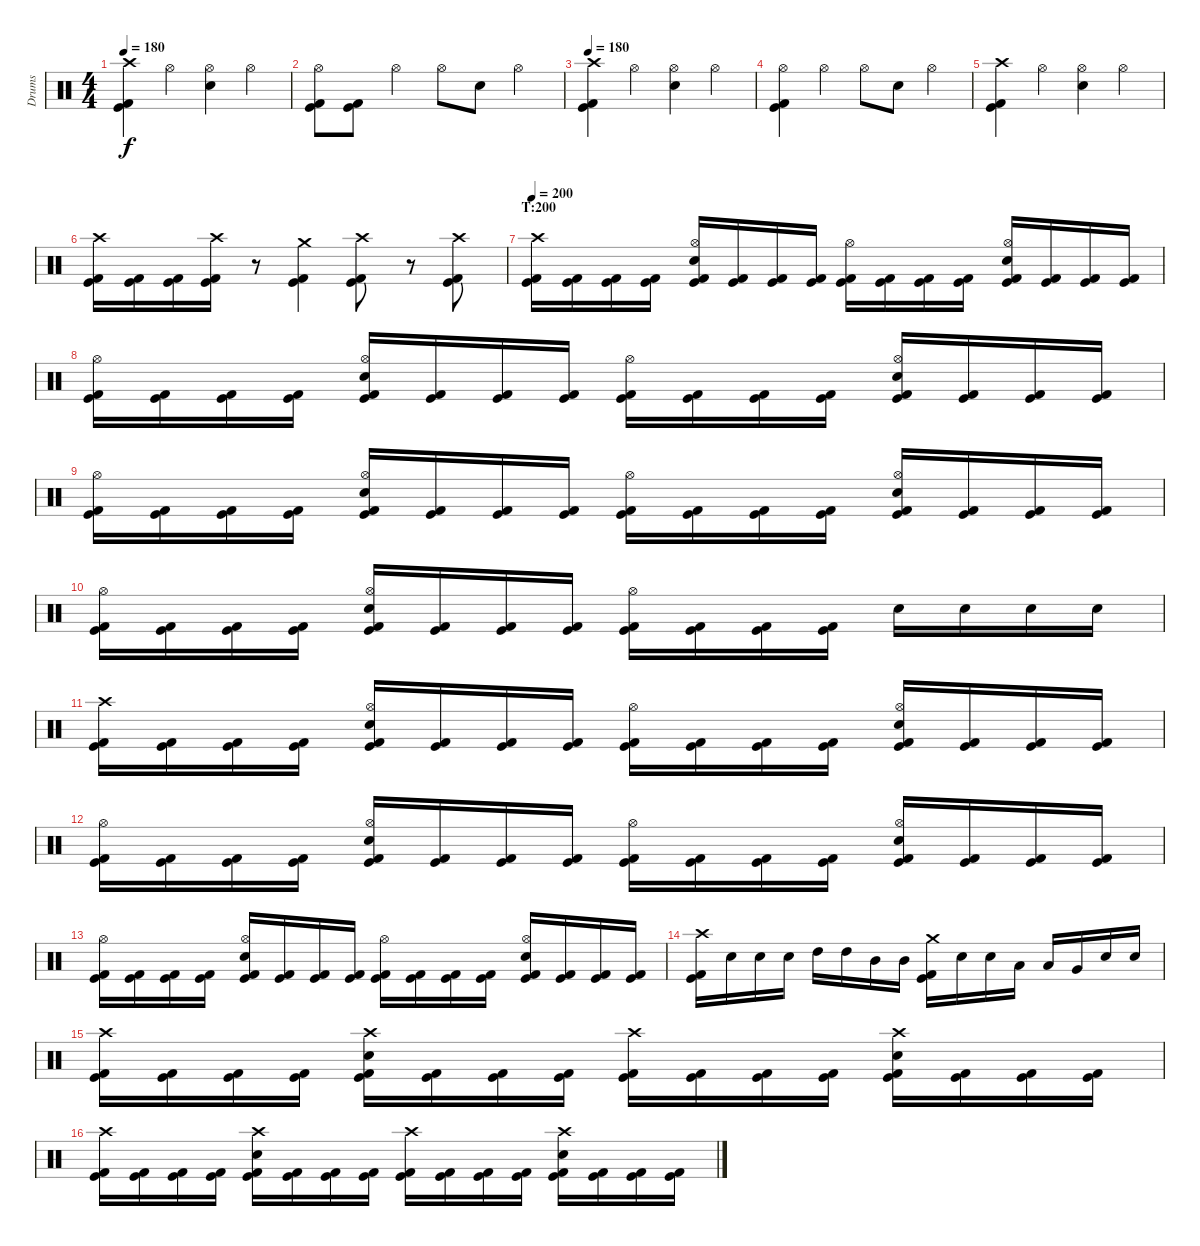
\track ("Drums" "Drums") {instrument percussion}
\staff {score}
\articulation defaults
\ts (4 4)
\tempo 180
\clef neutral
\ks c
("Crash high (hit)" "Kick (hit)" "Kick (hit) 2").4{dy f} "Hi-Hat (open)".4 ("Hi-Hat (open)" "Electric Snare (hit)").4 "Hi-Hat (open)".4 |
("Hi-Hat (open)" "Kick (hit)" "Kick (hit) 2").8 ("Kick (hit)" "Kick (hit) 2").8 "Hi-Hat (open)".4 "Hi-Hat (open)".8 "Electric Snare (hit)".8 "Hi-Hat (open)".4 |
\tempo 170
\tempo 180
("Crash high (hit)" "Kick (hit)" "Kick (hit) 2").4 "Hi-Hat (open)".4 ("Hi-Hat (open)" "Electric Snare (hit)").4 "Hi-Hat (open)".4 |
("Hi-Hat (open)" "Kick (hit)" "Kick (hit) 2").4 "Hi-Hat (open)".4 "Hi-Hat (open)".8 "Electric Snare (hit)".8 "Hi-Hat (open)".4 |
("Crash high (hit)" "Kick (hit)" "Kick (hit) 2").4 "Hi-Hat (open)".4 ("Hi-Hat (open)" "Electric Snare (hit)").4 "Hi-Hat (open)".4 |
("Crash high (hit)" "Kick (hit)" "Kick (hit) 2").16 ("Kick (hit)" "Kick (hit) 2").16 ("Kick (hit)" "Kick (hit) 2").16 ("Crash high (hit)" "Kick (hit)" "Kick (hit) 2").16 r.8 ("Crash medium (hit)" "Kick (hit)" "Kick (hit) 2").4 ("Crash high (hit)" "Kick (hit)" "Kick (hit) 2").8 r.8 ("Crash high (hit)" "Kick (hit)" "Kick (hit) 2").8 |
\section ("" "T:200")
\tempo 200
("Crash high (hit)" "Kick (hit)" "Kick (hit) 2").16 ("Kick (hit)" "Kick (hit) 2").16 ("Kick (hit)" "Kick (hit) 2").16 ("Kick (hit)" "Kick (hit) 2").16 ("Hi-Hat (open)" "Electric Snare (hit)" "Kick (hit)" "Kick (hit) 2").16 ("Kick (hit)" "Kick (hit) 2").16 ("Kick (hit)" "Kick (hit) 2").16 ("Kick (hit)" "Kick (hit) 2").16 ("Hi-Hat (open)" "Kick (hit)" "Kick (hit) 2").16 ("Kick (hit)" "Kick (hit) 2").16 ("Kick (hit)" "Kick (hit) 2").16 ("Kick (hit)" "Kick (hit) 2").16 ("Hi-Hat (open)" "Electric Snare (hit)" "Kick (hit)" "Kick (hit) 2").16 ("Kick (hit)" "Kick (hit) 2").16 ("Kick (hit)" "Kick (hit) 2").16 ("Kick (hit)" "Kick (hit) 2").16 |
("Hi-Hat (open)" "Kick (hit)" "Kick (hit) 2").16 ("Kick (hit)" "Kick (hit) 2").16 ("Kick (hit)" "Kick (hit) 2").16 ("Kick (hit)" "Kick (hit) 2").16 ("Hi-Hat (open)" "Electric Snare (hit)" "Kick (hit)" "Kick (hit) 2").16 ("Kick (hit)" "Kick (hit) 2").16 ("Kick (hit)" "Kick (hit) 2").16 ("Kick (hit)" "Kick (hit) 2").16 ("Hi-Hat (open)" "Kick (hit)" "Kick (hit) 2").16 ("Kick (hit)" "Kick (hit) 2").16 ("Kick (hit)" "Kick (hit) 2").16 ("Kick (hit)" "Kick (hit) 2").16 ("Hi-Hat (open)" "Electric Snare (hit)" "Kick (hit)" "Kick (hit) 2").16 ("Kick (hit)" "Kick (hit) 2").16 ("Kick (hit)" "Kick (hit) 2").16 ("Kick (hit)" "Kick (hit) 2").16 |
("Hi-Hat (open)" "Kick (hit)" "Kick (hit) 2").16 ("Kick (hit)" "Kick (hit) 2").16 ("Kick (hit)" "Kick (hit) 2").16 ("Kick (hit)" "Kick (hit) 2").16 ("Hi-Hat (open)" "Electric Snare (hit)" "Kick (hit)" "Kick (hit) 2").16 ("Kick (hit)" "Kick (hit) 2").16 ("Kick (hit)" "Kick (hit) 2").16 ("Kick (hit)" "Kick (hit) 2").16 ("Hi-Hat (open)" "Kick (hit)" "Kick (hit) 2").16 ("Kick (hit)" "Kick (hit) 2").16 ("Kick (hit)" "Kick (hit) 2").16 ("Kick (hit)" "Kick (hit) 2").16 ("Hi-Hat (open)" "Electric Snare (hit)" "Kick (hit)" "Kick (hit) 2").16 ("Kick (hit)" "Kick (hit) 2").16 ("Kick (hit)" "Kick (hit) 2").16 ("Kick (hit)" "Kick (hit) 2").16 |
("Hi-Hat (open)" "Kick (hit)" "Kick (hit) 2").16 ("Kick (hit)" "Kick (hit) 2").16 ("Kick (hit)" "Kick (hit) 2").16 ("Kick (hit)" "Kick (hit) 2").16 ("Hi-Hat (open)" "Electric Snare (hit)" "Kick (hit)" "Kick (hit) 2").16 ("Kick (hit)" "Kick (hit) 2").16 ("Kick (hit)" "Kick (hit) 2").16 ("Kick (hit)" "Kick (hit) 2").16 ("Hi-Hat (open)" "Kick (hit)" "Kick (hit) 2").16 ("Kick (hit)" "Kick (hit) 2").16 ("Kick (hit)" "Kick (hit) 2").16 ("Kick (hit)" "Kick (hit) 2").16 "Electric Snare (hit)".16 "Electric Snare (hit)".16 "Electric Snare (hit)".16 "Electric Snare (hit)".16 |
("Crash high (hit)" "Kick (hit)" "Kick (hit) 2").16 ("Kick (hit)" "Kick (hit) 2").16 ("Kick (hit)" "Kick (hit) 2").16 ("Kick (hit)" "Kick (hit) 2").16 ("Hi-Hat (open)" "Electric Snare (hit)" "Kick (hit)" "Kick (hit) 2").16 ("Kick (hit)" "Kick (hit) 2").16 ("Kick (hit)" "Kick (hit) 2").16 ("Kick (hit)" "Kick (hit) 2").16 ("Hi-Hat (open)" "Kick (hit)" "Kick (hit) 2").16 ("Kick (hit)" "Kick (hit) 2").16 ("Kick (hit)" "Kick (hit) 2").16 ("Kick (hit)" "Kick (hit) 2").16 ("Hi-Hat (open)" "Electric Snare (hit)" "Kick (hit)" "Kick (hit) 2").16 ("Kick (hit)" "Kick (hit) 2").16 ("Kick (hit)" "Kick (hit) 2").16 ("Kick (hit)" "Kick (hit) 2").16 |
("Hi-Hat (open)" "Kick (hit)" "Kick (hit) 2").16 ("Kick (hit)" "Kick (hit) 2").16 ("Kick (hit)" "Kick (hit) 2").16 ("Kick (hit)" "Kick (hit) 2").16 ("Hi-Hat (open)" "Electric Snare (hit)" "Kick (hit)" "Kick (hit) 2").16 ("Kick (hit)" "Kick (hit) 2").16 ("Kick (hit)" "Kick (hit) 2").16 ("Kick (hit)" "Kick (hit) 2").16 ("Hi-Hat (open)" "Kick (hit)" "Kick (hit) 2").16 ("Kick (hit)" "Kick (hit) 2").16 ("Kick (hit)" "Kick (hit) 2").16 ("Kick (hit)" "Kick (hit) 2").16 ("Hi-Hat (open)" "Electric Snare (hit)" "Kick (hit)" "Kick (hit) 2").16 ("Kick (hit)" "Kick (hit) 2").16 ("Kick (hit)" "Kick (hit) 2").16 ("Kick (hit)" "Kick (hit) 2").16 |
("Hi-Hat (open)" "Kick (hit)" "Kick (hit) 2").16 ("Kick (hit)" "Kick (hit) 2").16 ("Kick (hit)" "Kick (hit) 2").16 ("Kick (hit)" "Kick (hit) 2").16 ("Hi-Hat (open)" "Electric Snare (hit)" "Kick (hit)" "Kick (hit) 2").16 ("Kick (hit)" "Kick (hit) 2").16 ("Kick (hit)" "Kick (hit) 2").16 ("Kick (hit)" "Kick (hit) 2").16 ("Hi-Hat (open)" "Kick (hit)" "Kick (hit) 2").16 ("Kick (hit)" "Kick (hit) 2").16 ("Kick (hit)" "Kick (hit) 2").16 ("Kick (hit)" "Kick (hit) 2").16 ("Hi-Hat (open)" "Electric Snare (hit)" "Kick (hit)" "Kick (hit) 2").16 ("Kick (hit)" "Kick (hit) 2").16 ("Kick (hit)" "Kick (hit) 2").16 ("Kick (hit)" "Kick (hit) 2").16 |
("Crash high (hit)" "Kick (hit)" "Kick (hit) 2").16 "Electric Snare (hit)".16 "Electric Snare (hit)".16 "Electric Snare (hit)".16 "High Tom (hit)".16 "High Tom (hit)".16 "Mid Tom (hit)".16 "Mid Tom (hit)".16 ("Crash medium (hit)" "Kick (hit)" "Kick (hit) 2").16 "Electric Snare (hit)".16 "Electric Snare (hit)".16 "Low Tom (hit)".16 "Low Tom (hit)".16 "Very Low Tom (hit)".16 "Electric Snare (hit)".16 "Electric Snare (hit)".16 |
("Crash high (hit)" "Kick (hit)" "Kick (hit) 2").16 ("Kick (hit)" "Kick (hit) 2").16 ("Kick (hit)" "Kick (hit) 2").16 ("Kick (hit)" "Kick (hit) 2").16 ("Crash high (hit)" "Electric Snare (hit)" "Kick (hit)" "Kick (hit) 2").16 ("Kick (hit)" "Kick (hit) 2").16 ("Kick (hit)" "Kick (hit) 2").16 ("Kick (hit)" "Kick (hit) 2").16 ("Crash high (hit)" "Kick (hit)" "Kick (hit) 2").16 ("Kick (hit)" "Kick (hit) 2").16 ("Kick (hit)" "Kick (hit) 2").16 ("Kick (hit)" "Kick (hit) 2").16 ("Crash high (hit)" "Electric Snare (hit)" "Kick (hit)" "Kick (hit) 2").16 ("Kick (hit)" "Kick (hit) 2").16 ("Kick (hit)" "Kick (hit) 2").16 ("Kick (hit)" "Kick (hit) 2").16 |
("Crash high (hit)" "Kick (hit)" "Kick (hit) 2").16 ("Kick (hit)" "Kick (hit) 2").16 ("Kick (hit)" "Kick (hit) 2").16 ("Kick (hit)" "Kick (hit) 2").16 ("Crash high (hit)" "Electric Snare (hit)" "Kick (hit)" "Kick (hit) 2").16 ("Kick (hit)" "Kick (hit) 2").16 ("Kick (hit)" "Kick (hit) 2").16 ("Kick (hit)" "Kick (hit) 2").16 ("Crash high (hit)" "Kick (hit)" "Kick (hit) 2").16 ("Kick (hit)" "Kick (hit) 2").16 ("Kick (hit)" "Kick (hit) 2").16 ("Kick (hit)" "Kick (hit) 2").16 ("Crash high (hit)" "Electric Snare (hit)" "Kick (hit)" "Kick (hit) 2").16 ("Kick (hit)" "Kick (hit) 2").16 ("Kick (hit)" "Kick (hit) 2").16 ("Kick (hit)" "Kick (hit) 2").16
